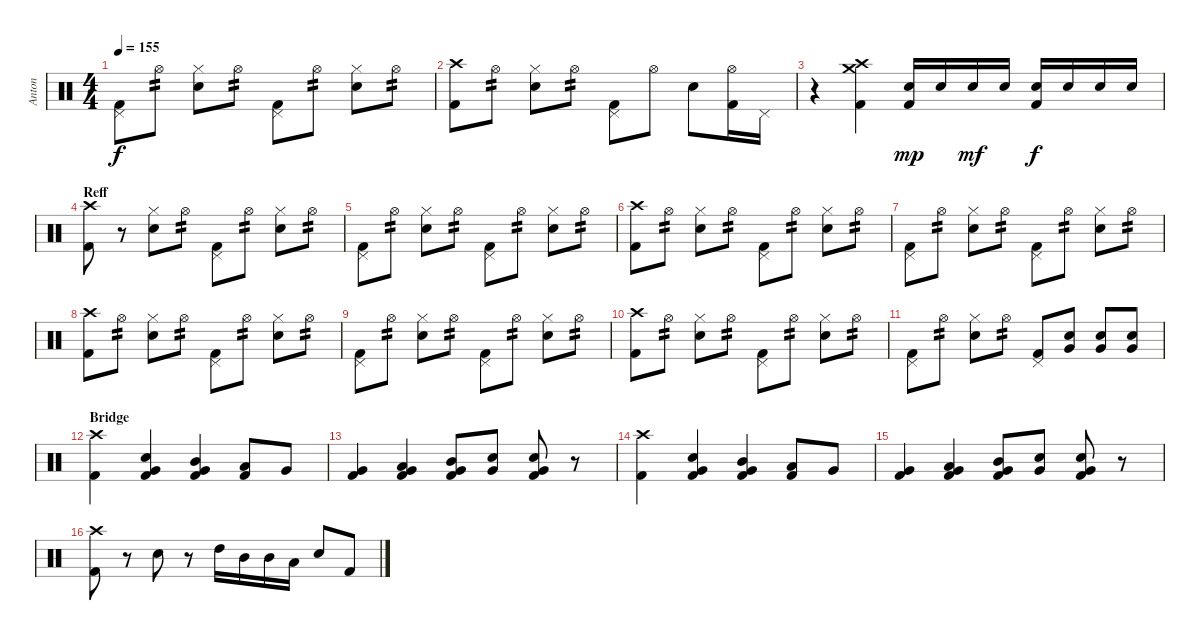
\track ("Anton" "Anton") {instrument percussion}
\staff {score}
\articulation defaults
\ts (4 4)
\tempo 155
\clef neutral
\ks c
("Kick (hit) 2" "Pedal Hi-Hat (hit)").8{dy f} "Hi-Hat (open)".8{tp 2} ("Electric Snare (hit)" "Hi-Hat (closed)").8 "Hi-Hat (open)".8{tp 2} ("Kick (hit) 2" "Pedal Hi-Hat (hit)").8 "Hi-Hat (open)".8{tp 2} ("Electric Snare (hit)" "Hi-Hat (closed)").8 "Hi-Hat (open)".8{tp 2} |
("Kick (hit) 2" "Crash high (hit)").8 "Hi-Hat (open)".8{tp 2} ("Electric Snare (hit)" "Hi-Hat (closed)").8 "Hi-Hat (open)".8{tp 2} ("Kick (hit) 2" "Pedal Hi-Hat (hit)").8 "Hi-Hat (open)".8 "Electric Snare (hit)".8 ("Kick (hit) 2" "Hi-Hat (open)").16 "Pedal Hi-Hat (hit)".16 |
r.4 ("Kick (hit) 2" "Crash high (hit)" "Crash medium (hit)").4 ("Snare (hit) 2" "Kick (hit) 2").16{dy mp} "Snare (hit) 2".16 "Snare (hit) 2".16{dy mf} "Snare (hit) 2".16 ("Snare (hit) 2" "Kick (hit) 2").16{dy f} "Snare (hit) 2".16 "Snare (hit) 2".16 "Snare (hit) 2".16 |
\section ("" "Reff")
("Kick (hit) 2" "Crash high (hit)").8 r.8 ("Electric Snare (hit)" "Hi-Hat (closed)").8 "Hi-Hat (open)".8{tp 2} ("Kick (hit) 2" "Pedal Hi-Hat (hit)").8 "Hi-Hat (open)".8{tp 2} ("Electric Snare (hit)" "Hi-Hat (closed)").8 "Hi-Hat (open)".8{tp 2} |
("Kick (hit) 2" "Pedal Hi-Hat (hit)").8 "Hi-Hat (open)".8{tp 2} ("Electric Snare (hit)" "Hi-Hat (closed)").8 "Hi-Hat (open)".8{tp 2} ("Kick (hit) 2" "Pedal Hi-Hat (hit)").8 "Hi-Hat (open)".8{tp 2} ("Electric Snare (hit)" "Hi-Hat (closed)").8 "Hi-Hat (open)".8{tp 2} |
("Kick (hit) 2" "Crash high (hit)").8 "Hi-Hat (open)".8{tp 2} ("Electric Snare (hit)" "Hi-Hat (closed)").8 "Hi-Hat (open)".8{tp 2} ("Kick (hit) 2" "Pedal Hi-Hat (hit)").8 "Hi-Hat (open)".8{tp 2} ("Electric Snare (hit)" "Hi-Hat (closed)").8 "Hi-Hat (open)".8{tp 2} |
("Kick (hit) 2" "Pedal Hi-Hat (hit)").8 "Hi-Hat (open)".8{tp 2} ("Electric Snare (hit)" "Hi-Hat (closed)").8 "Hi-Hat (open)".8{tp 2} ("Kick (hit) 2" "Pedal Hi-Hat (hit)").8 "Hi-Hat (open)".8{tp 2} ("Electric Snare (hit)" "Hi-Hat (closed)").8 "Hi-Hat (open)".8{tp 2} |
("Kick (hit) 2" "Crash high (hit)").8 "Hi-Hat (open)".8{tp 2} ("Electric Snare (hit)" "Hi-Hat (closed)").8 "Hi-Hat (open)".8{tp 2} ("Kick (hit) 2" "Pedal Hi-Hat (hit)").8 "Hi-Hat (open)".8{tp 2} ("Electric Snare (hit)" "Hi-Hat (closed)").8 "Hi-Hat (open)".8{tp 2} |
("Kick (hit) 2" "Pedal Hi-Hat (hit)").8 "Hi-Hat (open)".8{tp 2} ("Electric Snare (hit)" "Hi-Hat (closed)").8 "Hi-Hat (open)".8{tp 2} ("Kick (hit) 2" "Pedal Hi-Hat (hit)").8 "Hi-Hat (open)".8{tp 2} ("Electric Snare (hit)" "Hi-Hat (closed)").8 "Hi-Hat (open)".8{tp 2} |
("Kick (hit) 2" "Crash high (hit)").8 "Hi-Hat (open)".8{tp 2} ("Electric Snare (hit)" "Hi-Hat (closed)").8 "Hi-Hat (open)".8{tp 2} ("Kick (hit) 2" "Pedal Hi-Hat (hit)").8 "Hi-Hat (open)".8{tp 2} ("Electric Snare (hit)" "Hi-Hat (closed)").8 "Hi-Hat (open)".8{tp 2} |
("Kick (hit) 2" "Pedal Hi-Hat (hit)").8 "Hi-Hat (open)".8{tp 2} ("Electric Snare (hit)" "Hi-Hat (closed)").8 "Hi-Hat (open)".8{tp 2} ("Kick (hit) 2" "Pedal Hi-Hat (hit)").8 ("Snare (hit) 2" "Very Low Tom (hit)").8 ("Snare (hit) 2" "Very Low Tom (hit)").8 ("Snare (hit) 2" "Very Low Tom (hit)").8 |
\section ("" "Bridge")
("Kick (hit) 2" "Crash high (hit)").4 ("Kick (hit) 2" "Snare (hit) 2" "Very Low Tom (hit)").4 ("Kick (hit) 2" "Mid Tom (hit)" "Very Low Tom (hit)").4 ("Kick (hit) 2" "Low Tom (hit)").8 "Very Low Tom (hit)".8 |
("Kick (hit) 2" "Very Low Tom (hit)").4 ("Kick (hit) 2" "Low Tom (hit)" "Very Low Tom (hit)").4 ("Kick (hit) 2" "Mid Tom (hit)" "Very Low Tom (hit)").8 ("Snare (hit) 2" "Very Low Tom (hit)").8 ("Kick (hit) 2" "Snare (hit) 2" "Very Low Tom (hit)").8 r.8 |
("Kick (hit) 2" "Crash high (hit)").4 ("Kick (hit) 2" "Snare (hit) 2" "Very Low Tom (hit)").4 ("Kick (hit) 2" "Mid Tom (hit)" "Very Low Tom (hit)").4 ("Kick (hit) 2" "Low Tom (hit)").8 "Very Low Tom (hit)".8 |
("Kick (hit) 2" "Very Low Tom (hit)").4 ("Kick (hit) 2" "Low Tom (hit)" "Very Low Tom (hit)").4 ("Kick (hit) 2" "Mid Tom (hit)" "Very Low Tom (hit)").8 ("Snare (hit) 2" "Very Low Tom (hit)").8 ("Kick (hit) 2" "Snare (hit) 2" "Very Low Tom (hit)").8 r.8 |
("Kick (hit) 2" "Crash high (hit)").8 r.8 "Snare (hit) 2".8 r.8 "High Tom (hit)".16 "Mid Tom (hit)".16 "Mid Tom (hit)".16 "Low Tom (hit)".16 "Snare (hit) 2".8 "Kick (hit) 2".8
